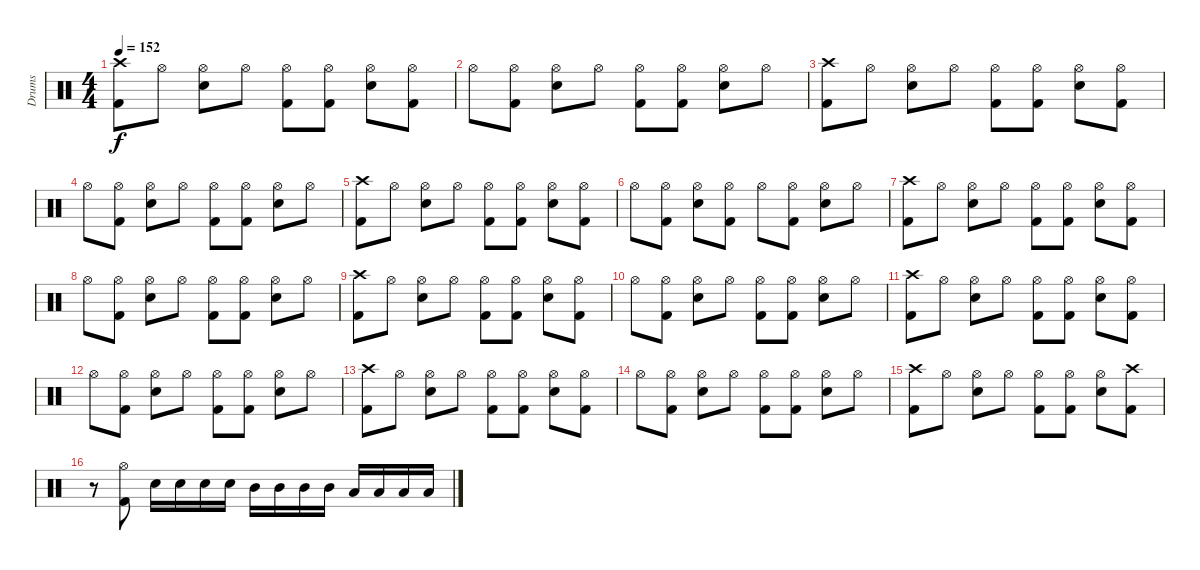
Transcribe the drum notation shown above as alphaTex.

\track ("Drums" "Drums") {instrument percussion}
\staff {score}
\articulation defaults
\ts (4 4)
\tempo 152
\clef neutral
\ks c
("Crash high (hit)" "Kick (hit) 2").8{dy f} "Hi-Hat (open)".8 ("Hi-Hat (open)" "Electric Snare (hit)").8 "Hi-Hat (open)".8 ("Hi-Hat (open)" "Kick (hit) 2").8 ("Hi-Hat (open)" "Kick (hit) 2").8 ("Hi-Hat (open)" "Electric Snare (hit)").8 ("Hi-Hat (open)" "Kick (hit) 2").8 |
"Hi-Hat (open)".8 ("Hi-Hat (open)" "Kick (hit) 2").8 ("Hi-Hat (open)" "Electric Snare (hit)").8 "Hi-Hat (open)".8 ("Hi-Hat (open)" "Kick (hit) 2").8 ("Hi-Hat (open)" "Kick (hit) 2").8 ("Hi-Hat (open)" "Electric Snare (hit)").8 "Hi-Hat (open)".8 |
("Crash high (hit)" "Kick (hit) 2").8 "Hi-Hat (open)".8 ("Hi-Hat (open)" "Electric Snare (hit)").8 "Hi-Hat (open)".8 ("Hi-Hat (open)" "Kick (hit) 2").8 ("Hi-Hat (open)" "Kick (hit) 2").8 ("Hi-Hat (open)" "Electric Snare (hit)").8 ("Hi-Hat (open)" "Kick (hit) 2").8 |
"Hi-Hat (open)".8 ("Hi-Hat (open)" "Kick (hit) 2").8 ("Hi-Hat (open)" "Electric Snare (hit)").8 "Hi-Hat (open)".8 ("Hi-Hat (open)" "Kick (hit) 2").8 ("Hi-Hat (open)" "Kick (hit) 2").8 ("Hi-Hat (open)" "Electric Snare (hit)").8 "Hi-Hat (open)".8 |
("Crash high (hit)" "Kick (hit) 2").8 "Hi-Hat (open)".8 ("Hi-Hat (open)" "Electric Snare (hit)").8 "Hi-Hat (open)".8 ("Hi-Hat (open)" "Kick (hit) 2").8 ("Hi-Hat (open)" "Kick (hit) 2").8 ("Hi-Hat (open)" "Electric Snare (hit)").8 ("Hi-Hat (open)" "Kick (hit) 2").8 |
"Hi-Hat (open)".8 ("Hi-Hat (open)" "Kick (hit) 2").8 ("Hi-Hat (open)" "Electric Snare (hit)").8 ("Hi-Hat (open)" "Kick (hit) 2").8 "Hi-Hat (open)".8 ("Hi-Hat (open)" "Kick (hit) 2").8 ("Hi-Hat (open)" "Electric Snare (hit)").8 "Hi-Hat (open)".8 |
("Crash high (hit)" "Kick (hit) 2").8 "Hi-Hat (open)".8 ("Hi-Hat (open)" "Electric Snare (hit)").8 "Hi-Hat (open)".8 ("Hi-Hat (open)" "Kick (hit) 2").8 ("Hi-Hat (open)" "Kick (hit) 2").8 ("Hi-Hat (open)" "Electric Snare (hit)").8 ("Hi-Hat (open)" "Kick (hit) 2").8 |
"Hi-Hat (open)".8 ("Hi-Hat (open)" "Kick (hit) 2").8 ("Hi-Hat (open)" "Electric Snare (hit)").8 "Hi-Hat (open)".8 ("Hi-Hat (open)" "Kick (hit) 2").8 ("Hi-Hat (open)" "Kick (hit) 2").8 ("Hi-Hat (open)" "Electric Snare (hit)").8 "Hi-Hat (open)".8 |
("Crash high (hit)" "Kick (hit) 2").8 "Hi-Hat (open)".8 ("Hi-Hat (open)" "Electric Snare (hit)").8 "Hi-Hat (open)".8 ("Hi-Hat (open)" "Kick (hit) 2").8 ("Hi-Hat (open)" "Kick (hit) 2").8 ("Hi-Hat (open)" "Electric Snare (hit)").8 ("Hi-Hat (open)" "Kick (hit) 2").8 |
"Hi-Hat (open)".8 ("Hi-Hat (open)" "Kick (hit) 2").8 ("Hi-Hat (open)" "Electric Snare (hit)").8 "Hi-Hat (open)".8 ("Hi-Hat (open)" "Kick (hit) 2").8 ("Hi-Hat (open)" "Kick (hit) 2").8 ("Hi-Hat (open)" "Electric Snare (hit)").8 "Hi-Hat (open)".8 |
("Crash high (hit)" "Kick (hit) 2").8 "Hi-Hat (open)".8 ("Hi-Hat (open)" "Electric Snare (hit)").8 "Hi-Hat (open)".8 ("Hi-Hat (open)" "Kick (hit) 2").8 ("Hi-Hat (open)" "Kick (hit) 2").8 ("Hi-Hat (open)" "Electric Snare (hit)").8 ("Hi-Hat (open)" "Kick (hit) 2").8 |
"Hi-Hat (open)".8 ("Hi-Hat (open)" "Kick (hit) 2").8 ("Hi-Hat (open)" "Electric Snare (hit)").8 "Hi-Hat (open)".8 ("Hi-Hat (open)" "Kick (hit) 2").8 ("Hi-Hat (open)" "Kick (hit) 2").8 ("Hi-Hat (open)" "Electric Snare (hit)").8 "Hi-Hat (open)".8 |
("Crash high (hit)" "Kick (hit) 2").8 "Hi-Hat (open)".8 ("Hi-Hat (open)" "Electric Snare (hit)").8 "Hi-Hat (open)".8 ("Hi-Hat (open)" "Kick (hit) 2").8 ("Hi-Hat (open)" "Kick (hit) 2").8 ("Hi-Hat (open)" "Electric Snare (hit)").8 ("Hi-Hat (open)" "Kick (hit) 2").8 |
"Hi-Hat (open)".8 ("Hi-Hat (open)" "Kick (hit) 2").8 ("Hi-Hat (open)" "Electric Snare (hit)").8 "Hi-Hat (open)".8 ("Hi-Hat (open)" "Kick (hit) 2").8 ("Hi-Hat (open)" "Kick (hit) 2").8 ("Hi-Hat (open)" "Electric Snare (hit)").8 "Hi-Hat (open)".8 |
("Crash high (hit)" "Kick (hit) 2").8 "Hi-Hat (open)".8 ("Hi-Hat (open)" "Electric Snare (hit)").8 "Hi-Hat (open)".8 ("Hi-Hat (open)" "Kick (hit) 2").8 ("Hi-Hat (open)" "Kick (hit) 2").8 ("Hi-Hat (open)" "Electric Snare (hit)").8 ("Crash high (hit)" "Kick (hit) 2").8 |
r.8 ("Hi-Hat (open)" "Kick (hit) 2").8 "Electric Snare (hit)".16 "Electric Snare (hit)".16 "Electric Snare (hit)".16 "Electric Snare (hit)".16 "Mid Tom (hit)".16 "Mid Tom (hit)".16 "Mid Tom (hit)".16 "Mid Tom (hit)".16 "Low Floor Tom (hit)".16 "Low Floor Tom (hit)".16 "Low Floor Tom (hit)".16 "Low Floor Tom (hit)".16
